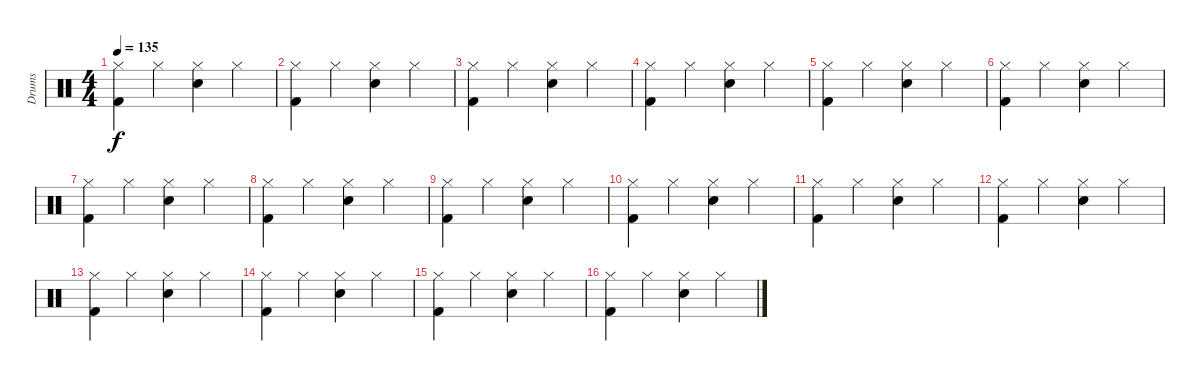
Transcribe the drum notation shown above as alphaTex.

\track ("Drums" "Drums") {instrument percussion}
\staff {score}
\articulation defaults
\ts (4 4)
\tempo 135
\clef neutral
\ks c
("Hi-Hat (closed)" "Kick (hit) 2").4{dy f} "Hi-Hat (closed)".4 ("Hi-Hat (closed)" "Electric Snare (hit)").4 "Hi-Hat (closed)".4 |
("Hi-Hat (closed)" "Kick (hit) 2").4 "Hi-Hat (closed)".4 ("Hi-Hat (closed)" "Electric Snare (hit)").4 "Hi-Hat (closed)".4 |
("Hi-Hat (closed)" "Kick (hit) 2").4 "Hi-Hat (closed)".4 ("Hi-Hat (closed)" "Electric Snare (hit)").4 "Hi-Hat (closed)".4 |
("Hi-Hat (closed)" "Kick (hit) 2").4 "Hi-Hat (closed)".4 ("Hi-Hat (closed)" "Electric Snare (hit)").4 "Hi-Hat (closed)".4 |
("Hi-Hat (closed)" "Kick (hit) 2").4 "Hi-Hat (closed)".4 ("Hi-Hat (closed)" "Electric Snare (hit)").4 "Hi-Hat (closed)".4 |
("Hi-Hat (closed)" "Kick (hit) 2").4 "Hi-Hat (closed)".4 ("Hi-Hat (closed)" "Electric Snare (hit)").4 "Hi-Hat (closed)".4 |
("Hi-Hat (closed)" "Kick (hit) 2").4 "Hi-Hat (closed)".4 ("Hi-Hat (closed)" "Electric Snare (hit)").4 "Hi-Hat (closed)".4 |
("Hi-Hat (closed)" "Kick (hit) 2").4 "Hi-Hat (closed)".4 ("Hi-Hat (closed)" "Electric Snare (hit)").4 "Hi-Hat (closed)".4 |
("Hi-Hat (closed)" "Kick (hit) 2").4 "Hi-Hat (closed)".4 ("Hi-Hat (closed)" "Electric Snare (hit)").4 "Hi-Hat (closed)".4 |
("Hi-Hat (closed)" "Kick (hit) 2").4 "Hi-Hat (closed)".4 ("Hi-Hat (closed)" "Electric Snare (hit)").4 "Hi-Hat (closed)".4 |
("Hi-Hat (closed)" "Kick (hit) 2").4 "Hi-Hat (closed)".4 ("Hi-Hat (closed)" "Electric Snare (hit)").4 "Hi-Hat (closed)".4 |
("Hi-Hat (closed)" "Kick (hit) 2").4 "Hi-Hat (closed)".4 ("Hi-Hat (closed)" "Electric Snare (hit)").4 "Hi-Hat (closed)".4 |
("Hi-Hat (closed)" "Kick (hit) 2").4 "Hi-Hat (closed)".4 ("Hi-Hat (closed)" "Electric Snare (hit)").4 "Hi-Hat (closed)".4 |
("Hi-Hat (closed)" "Kick (hit) 2").4 "Hi-Hat (closed)".4 ("Hi-Hat (closed)" "Electric Snare (hit)").4 "Hi-Hat (closed)".4 |
("Hi-Hat (closed)" "Kick (hit) 2").4 "Hi-Hat (closed)".4 ("Hi-Hat (closed)" "Electric Snare (hit)").4 "Hi-Hat (closed)".4 |
("Hi-Hat (closed)" "Kick (hit) 2").4 "Hi-Hat (closed)".4 ("Hi-Hat (closed)" "Electric Snare (hit)").4 "Hi-Hat (closed)".4
